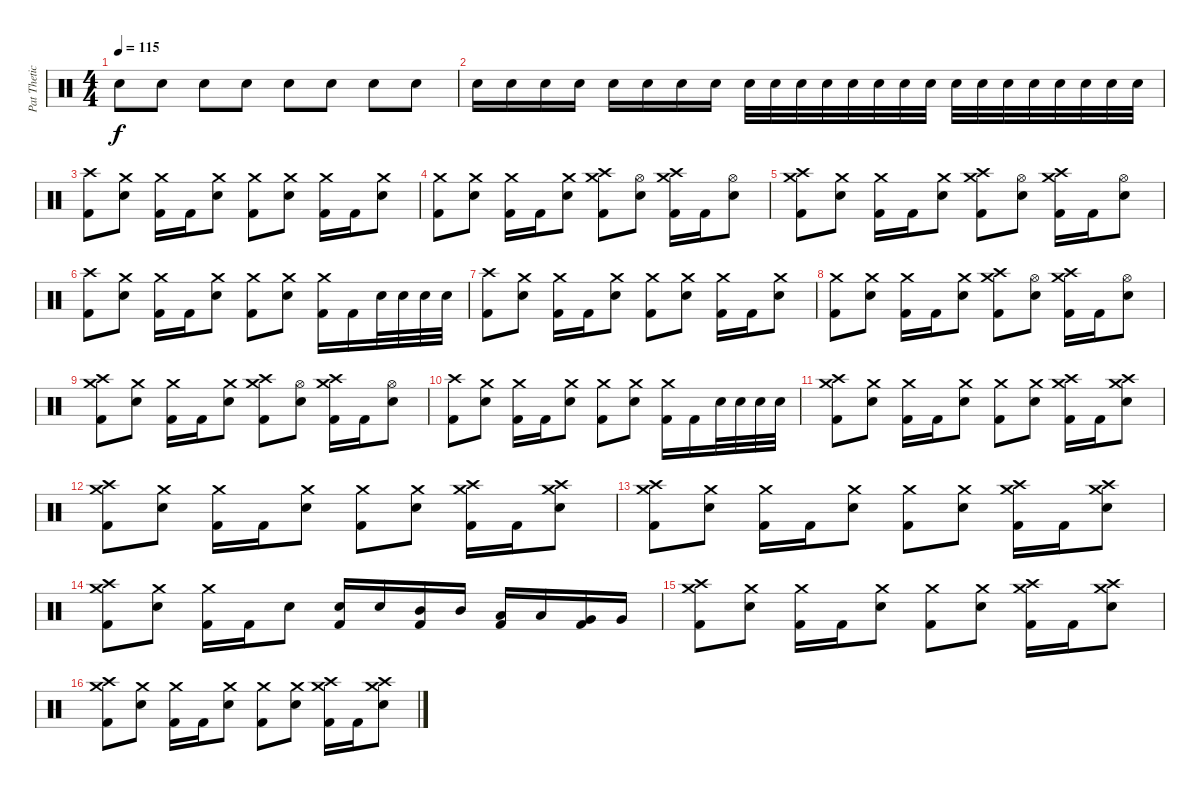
\track ("Pat Thetic" "Pat Thetic") {instrument percussion}
\staff {score}
\articulation defaults
\ts (4 4)
\tempo 115
\clef neutral
\ks c "Electric Snare (hit)".8{dy f} "Electric Snare (hit)".8 "Electric Snare (hit)".8 "Electric Snare (hit)".8 "Electric Snare (hit)".8 "Electric Snare (hit)".8 "Electric Snare (hit)".8 "Electric Snare (hit)".8
|
"Electric Snare (hit)".16 "Electric Snare (hit)".16 "Electric Snare (hit)".16 "Electric Snare (hit)".16 "Electric Snare (hit)".16 "Electric Snare (hit)".16 "Electric Snare (hit)".16 "Electric Snare (hit)".16 "Electric Snare (hit)".32 "Electric Snare (hit)".32 "Electric Snare (hit)".32 "Electric Snare (hit)".32 "Electric Snare (hit)".32 "Electric Snare (hit)".32 "Electric Snare (hit)".32 "Electric Snare (hit)".32 "Electric Snare (hit)".32 "Electric Snare (hit)".32 "Electric Snare (hit)".32 "Electric Snare (hit)".32 "Electric Snare (hit)".32 "Electric Snare (hit)".32 "Electric Snare (hit)".32 "Electric Snare (hit)".32 |
("Crash high (hit)" "Kick (hit) 2").8 ("Crash medium (hit)" "Electric Snare (hit)").8 ("Crash medium (hit)" "Kick (hit) 2").16 "Kick (hit) 2".16 ("Crash medium (hit)" "Electric Snare (hit)").8 ("Crash medium (hit)" "Kick (hit) 2").8 ("Crash medium (hit)" "Electric Snare (hit)").8 ("Crash medium (hit)" "Kick (hit) 2").16 "Kick (hit) 2".16 ("Crash medium (hit)" "Electric Snare (hit)").8 |
("Crash medium (hit)" "Kick (hit) 2").8 ("Crash medium (hit)" "Electric Snare (hit)").8 ("Crash medium (hit)" "Kick (hit) 2").16 "Kick (hit) 2".16 ("Crash medium (hit)" "Electric Snare (hit)").8 ("Crash high (hit)" "Crash medium (hit)" "Kick (hit) 2").8 ("Hi-Hat (open)" "Electric Snare (hit)").8 ("Crash high (hit)" "Crash medium (hit)" "Kick (hit) 2").16 "Kick (hit) 2".16 ("Hi-Hat (open)" "Electric Snare (hit)").8 |
("Crash high (hit)" "Crash medium (hit)" "Kick (hit) 2").8 ("Crash medium (hit)" "Electric Snare (hit)").8 ("Crash medium (hit)" "Kick (hit) 2").16 "Kick (hit) 2".16 ("Crash medium (hit)" "Electric Snare (hit)").8 ("Crash high (hit)" "Crash medium (hit)" "Kick (hit) 2").8 ("Hi-Hat (open)" "Electric Snare (hit)").8 ("Crash high (hit)" "Crash medium (hit)" "Kick (hit) 2").16 "Kick (hit) 2".16 ("Hi-Hat (open)" "Electric Snare (hit)").8 |
("Crash high (hit)" "Kick (hit) 2").8 ("Crash medium (hit)" "Electric Snare (hit)").8 ("Crash medium (hit)" "Kick (hit) 2").16 "Kick (hit) 2".16 ("Crash medium (hit)" "Electric Snare (hit)").8 ("Crash medium (hit)" "Kick (hit) 2").8 ("Crash medium (hit)" "Electric Snare (hit)").8 ("Crash medium (hit)" "Kick (hit) 2").16 "Kick (hit) 2".16 "Electric Snare (hit)".32 "Electric Snare (hit)".32 "Electric Snare (hit)".32 "Electric Snare (hit)".32 |
("Crash high (hit)" "Kick (hit) 2").8 ("Crash medium (hit)" "Electric Snare (hit)").8 ("Crash medium (hit)" "Kick (hit) 2").16 "Kick (hit) 2".16 ("Crash medium (hit)" "Electric Snare (hit)").8 ("Crash medium (hit)" "Kick (hit) 2").8 ("Crash medium (hit)" "Electric Snare (hit)").8 ("Crash medium (hit)" "Kick (hit) 2").16 "Kick (hit) 2".16 ("Crash medium (hit)" "Electric Snare (hit)").8 |
("Crash medium (hit)" "Kick (hit) 2").8 ("Crash medium (hit)" "Electric Snare (hit)").8 ("Crash medium (hit)" "Kick (hit) 2").16 "Kick (hit) 2".16 ("Crash medium (hit)" "Electric Snare (hit)").8 ("Crash high (hit)" "Crash medium (hit)" "Kick (hit) 2").8 ("Hi-Hat (open)" "Electric Snare (hit)").8 ("Crash high (hit)" "Crash medium (hit)" "Kick (hit) 2").16 "Kick (hit) 2".16 ("Hi-Hat (open)" "Electric Snare (hit)").8 |
("Crash high (hit)" "Crash medium (hit)" "Kick (hit) 2").8 ("Crash medium (hit)" "Electric Snare (hit)").8 ("Crash medium (hit)" "Kick (hit) 2").16 "Kick (hit) 2".16 ("Crash medium (hit)" "Electric Snare (hit)").8 ("Crash high (hit)" "Crash medium (hit)" "Kick (hit) 2").8 ("Hi-Hat (open)" "Electric Snare (hit)").8 ("Crash high (hit)" "Crash medium (hit)" "Kick (hit) 2").16 "Kick (hit) 2".16 ("Hi-Hat (open)" "Electric Snare (hit)").8 |
("Crash high (hit)" "Kick (hit) 2").8 ("Crash medium (hit)" "Electric Snare (hit)").8 ("Crash medium (hit)" "Kick (hit) 2").16 "Kick (hit) 2".16 ("Crash medium (hit)" "Electric Snare (hit)").8 ("Crash medium (hit)" "Kick (hit) 2").8 ("Crash medium (hit)" "Electric Snare (hit)").8 ("Crash medium (hit)" "Kick (hit) 2").16 "Kick (hit) 2".16 "Electric Snare (hit)".32 "Electric Snare (hit)".32 "Electric Snare (hit)".32 "Electric Snare (hit)".32 |
("Crash high (hit)" "Crash medium (hit)" "Kick (hit) 2").8 ("Crash medium (hit)" "Electric Snare (hit)").8 ("Crash medium (hit)" "Kick (hit) 2").16 "Kick (hit) 2".16 ("Crash medium (hit)" "Electric Snare (hit)").8 ("Crash medium (hit)" "Kick (hit) 2").8 ("Crash medium (hit)" "Electric Snare (hit)").8 ("Crash high (hit)" "Crash medium (hit)" "Kick (hit) 2").16 "Kick (hit) 2".16 ("Crash high (hit)" "Crash medium (hit)" "Electric Snare (hit)").8 |
("Crash high (hit)" "Crash medium (hit)" "Kick (hit) 2").8 ("Crash medium (hit)" "Electric Snare (hit)").8 ("Crash medium (hit)" "Kick (hit) 2").16 "Kick (hit) 2".16 ("Crash medium (hit)" "Electric Snare (hit)").8 ("Crash medium (hit)" "Kick (hit) 2").8 ("Crash medium (hit)" "Electric Snare (hit)").8 ("Crash high (hit)" "Crash medium (hit)" "Kick (hit) 2").16 "Kick (hit) 2".16 ("Crash high (hit)" "Crash medium (hit)" "Electric Snare (hit)").8 |
("Crash high (hit)" "Crash medium (hit)" "Kick (hit) 2").8 ("Crash medium (hit)" "Electric Snare (hit)").8 ("Crash medium (hit)" "Kick (hit) 2").16 "Kick (hit) 2".16 ("Crash medium (hit)" "Electric Snare (hit)").8 ("Crash medium (hit)" "Kick (hit) 2").8 ("Crash medium (hit)" "Electric Snare (hit)").8 ("Crash high (hit)" "Crash medium (hit)" "Kick (hit) 2").16 "Kick (hit) 2".16 ("Crash high (hit)" "Crash medium (hit)" "Electric Snare (hit)").8 |
("Crash high (hit)" "Crash medium (hit)" "Kick (hit) 2").8 ("Crash medium (hit)" "Electric Snare (hit)").8 ("Crash medium (hit)" "Kick (hit) 2").16 "Kick (hit) 2".16 "Electric Snare (hit)".8 ("Electric Snare (hit)" "Kick (hit) 2").16 "Electric Snare (hit)".16 ("Mid Tom (hit)" "Kick (hit) 2").16 "Mid Tom (hit)".16 ("Low Tom (hit)" "Kick (hit) 2").16 "Low Tom (hit)".16 ("Very Low Tom (hit)" "Kick (hit) 2").16 "Very Low Tom (hit)".16 |
("Crash high (hit)" "Crash medium (hit)" "Kick (hit) 2").8 ("Crash medium (hit)" "Electric Snare (hit)").8 ("Crash medium (hit)" "Kick (hit) 2").16 "Kick (hit) 2".16 ("Crash medium (hit)" "Electric Snare (hit)").8 ("Crash medium (hit)" "Kick (hit) 2").8 ("Crash medium (hit)" "Electric Snare (hit)").8 ("Crash high (hit)" "Crash medium (hit)" "Kick (hit) 2").16 "Kick (hit) 2".16 ("Crash high (hit)" "Crash medium (hit)" "Electric Snare (hit)").8 |
("Crash high (hit)" "Crash medium (hit)" "Kick (hit) 2").8 ("Crash medium (hit)" "Electric Snare (hit)").8 ("Crash medium (hit)" "Kick (hit) 2").16 "Kick (hit) 2".16 ("Crash medium (hit)" "Electric Snare (hit)").8 ("Crash medium (hit)" "Kick (hit) 2").8 ("Crash medium (hit)" "Electric Snare (hit)").8 ("Crash high (hit)" "Crash medium (hit)" "Kick (hit) 2").16 "Kick (hit) 2".16 ("Crash high (hit)" "Crash medium (hit)" "Electric Snare (hit)").8
